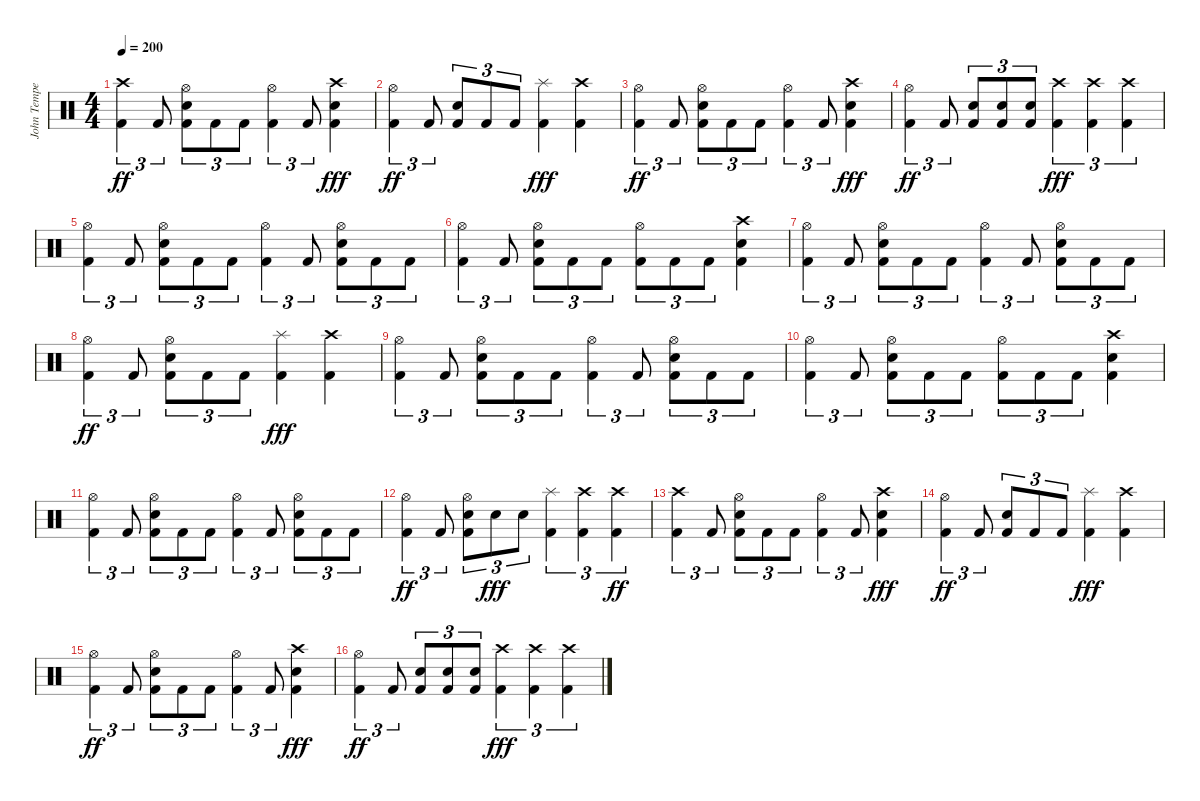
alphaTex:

\track ("John Tempesta" "John Tempe") {instrument percussion}
\staff {score}
\articulation defaults
\ts (4 4)
\tempo 200
\clef neutral
\ks c
("Crash high (hit)" "Kick (hit) 2").4{tu (3 2) dy ff} "Kick (hit) 2".8{tu (3 2)} ("Electric Snare (hit)" "Hi-Hat (open)" "Kick (hit) 2").8{tu (3 2)} "Kick (hit) 2".8{tu (3 2)} "Kick (hit) 2".8{tu (3 2)} ("Hi-Hat (open)" "Kick (hit) 2").4{tu (3 2)} "Kick (hit) 2".8{tu (3 2)} ("Electric Snare (hit)" "Crash high (hit)" "Kick (hit) 2").4{dy fff} |
("Hi-Hat (open)" "Kick (hit) 2").4{tu (3 2) dy ff} "Kick (hit) 2".8{tu (3 2)} ("Electric Snare (hit)" "Kick (hit) 2").8{tu (3 2)} "Kick (hit) 2".8{tu (3 2)} "Kick (hit) 2".8{tu (3 2)} ("Splash (hit)" "Kick (hit) 2").4{dy fff} ("Crash high (hit)" "Kick (hit) 2").4 |
("Hi-Hat (open)" "Kick (hit) 2").4{tu (3 2) dy ff} "Kick (hit) 2".8{tu (3 2)} ("Electric Snare (hit)" "Hi-Hat (open)" "Kick (hit) 2").8{tu (3 2)} "Kick (hit) 2".8{tu (3 2)} "Kick (hit) 2".8{tu (3 2)} ("Hi-Hat (open)" "Kick (hit) 2").4{tu (3 2)} "Kick (hit) 2".8{tu (3 2)} ("Electric Snare (hit)" "Crash high (hit)" "Kick (hit) 2").4{dy fff} |
("Hi-Hat (open)" "Kick (hit) 2").4{tu (3 2) dy ff} "Kick (hit) 2".8{tu (3 2)} ("Electric Snare (hit)" "Kick (hit) 2").8{tu (3 2)} ("Electric Snare (hit)" "Kick (hit) 2").8{tu (3 2)} ("Electric Snare (hit)" "Kick (hit) 2").8{tu (3 2)} ("Crash high (hit)" "Kick (hit) 2").4{tu (3 2) dy fff} ("Crash high (hit)" "Kick (hit) 2").4{tu (3 2)} ("Crash high (hit)" "Kick (hit) 2").4{tu (3 2)} |
("Hi-Hat (open)" "Kick (hit) 2").4{tu (3 2)} "Kick (hit) 2".8{tu (3 2)} ("Electric Snare (hit)" "Hi-Hat (open)" "Kick (hit) 2").8{tu (3 2)} "Kick (hit) 2".8{tu (3 2)} "Kick (hit) 2".8{tu (3 2)} ("Hi-Hat (open)" "Kick (hit) 2").4{tu (3 2)} "Kick (hit) 2".8{tu (3 2)} ("Electric Snare (hit)" "Hi-Hat (open)" "Kick (hit) 2").8{tu (3 2)} "Kick (hit) 2".8{tu (3 2)} "Kick (hit) 2".8{tu (3 2)} |
("Hi-Hat (open)" "Kick (hit) 2").4{tu (3 2)} "Kick (hit) 2".8{tu (3 2)} ("Electric Snare (hit)" "Hi-Hat (open)" "Kick (hit) 2").8{tu (3 2)} "Kick (hit) 2".8{tu (3 2)} "Kick (hit) 2".8{tu (3 2)} ("Hi-Hat (open)" "Kick (hit) 2").8{tu (3 2)} "Kick (hit) 2".8{tu (3 2)} "Kick (hit) 2".8{tu (3 2)} ("Electric Snare (hit)" "Crash high (hit)" "Kick (hit) 2").4 |
("Hi-Hat (open)" "Kick (hit) 2").4{tu (3 2)} "Kick (hit) 2".8{tu (3 2)} ("Electric Snare (hit)" "Hi-Hat (open)" "Kick (hit) 2").8{tu (3 2)} "Kick (hit) 2".8{tu (3 2)} "Kick (hit) 2".8{tu (3 2)} ("Hi-Hat (open)" "Kick (hit) 2").4{tu (3 2)} "Kick (hit) 2".8{tu (3 2)} ("Electric Snare (hit)" "Hi-Hat (open)" "Kick (hit) 2").8{tu (3 2)} "Kick (hit) 2".8{tu (3 2)} "Kick (hit) 2".8{tu (3 2)} |
("Hi-Hat (open)" "Kick (hit) 2").4{tu (3 2) dy ff} "Kick (hit) 2".8{tu (3 2)} ("Electric Snare (hit)" "Hi-Hat (open)" "Kick (hit) 2").8{tu (3 2)} "Kick (hit) 2".8{tu (3 2)} "Kick (hit) 2".8{tu (3 2)} ("Splash (hit)" "Kick (hit) 2").4{dy fff} ("Crash high (hit)" "Kick (hit) 2").4 |
("Hi-Hat (open)" "Kick (hit) 2").4{tu (3 2)} "Kick (hit) 2".8{tu (3 2)} ("Electric Snare (hit)" "Hi-Hat (open)" "Kick (hit) 2").8{tu (3 2)} "Kick (hit) 2".8{tu (3 2)} "Kick (hit) 2".8{tu (3 2)} ("Hi-Hat (open)" "Kick (hit) 2").4{tu (3 2)} "Kick (hit) 2".8{tu (3 2)} ("Electric Snare (hit)" "Hi-Hat (open)" "Kick (hit) 2").8{tu (3 2)} "Kick (hit) 2".8{tu (3 2)} "Kick (hit) 2".8{tu (3 2)} |
("Hi-Hat (open)" "Kick (hit) 2").4{tu (3 2)} "Kick (hit) 2".8{tu (3 2)} ("Electric Snare (hit)" "Hi-Hat (open)" "Kick (hit) 2").8{tu (3 2)} "Kick (hit) 2".8{tu (3 2)} "Kick (hit) 2".8{tu (3 2)} ("Hi-Hat (open)" "Kick (hit) 2").8{tu (3 2)} "Kick (hit) 2".8{tu (3 2)} "Kick (hit) 2".8{tu (3 2)} ("Electric Snare (hit)" "Crash high (hit)" "Kick (hit) 2").4 |
("Hi-Hat (open)" "Kick (hit) 2").4{tu (3 2)} "Kick (hit) 2".8{tu (3 2)} ("Electric Snare (hit)" "Hi-Hat (open)" "Kick (hit) 2").8{tu (3 2)} "Kick (hit) 2".8{tu (3 2)} "Kick (hit) 2".8{tu (3 2)} ("Hi-Hat (open)" "Kick (hit) 2").4{tu (3 2)} "Kick (hit) 2".8{tu (3 2)} ("Electric Snare (hit)" "Hi-Hat (open)" "Kick (hit) 2").8{tu (3 2)} "Kick (hit) 2".8{tu (3 2)} "Kick (hit) 2".8{tu (3 2)} |
("Hi-Hat (open)" "Kick (hit) 2").4{tu (3 2) dy ff} "Kick (hit) 2".8{tu (3 2)} ("Electric Snare (hit)" "Hi-Hat (open)" "Kick (hit) 2").8{tu (3 2)} "Electric Snare (hit)".8{tu (3 2) dy fff} "Electric Snare (hit)".8{tu (3 2)} ("Splash (hit)" "Kick (hit) 2").4{tu (3 2)} ("Crash high (hit)" "Kick (hit) 2").4{tu (3 2)} ("Crash high (hit)" "Kick (hit) 2").4{tu (3 2) dy ff} |
("Crash high (hit)" "Kick (hit) 2").4{tu (3 2)} "Kick (hit) 2".8{tu (3 2)} ("Electric Snare (hit)" "Hi-Hat (open)" "Kick (hit) 2").8{tu (3 2)} "Kick (hit) 2".8{tu (3 2)} "Kick (hit) 2".8{tu (3 2)} ("Hi-Hat (open)" "Kick (hit) 2").4{tu (3 2)} "Kick (hit) 2".8{tu (3 2)} ("Electric Snare (hit)" "Crash high (hit)" "Kick (hit) 2").4{dy fff} |
("Hi-Hat (open)" "Kick (hit) 2").4{tu (3 2) dy ff} "Kick (hit) 2".8{tu (3 2)} ("Electric Snare (hit)" "Kick (hit) 2").8{tu (3 2)} "Kick (hit) 2".8{tu (3 2)} "Kick (hit) 2".8{tu (3 2)} ("Splash (hit)" "Kick (hit) 2").4{dy fff} ("Crash high (hit)" "Kick (hit) 2").4 |
("Hi-Hat (open)" "Kick (hit) 2").4{tu (3 2) dy ff} "Kick (hit) 2".8{tu (3 2)} ("Electric Snare (hit)" "Hi-Hat (open)" "Kick (hit) 2").8{tu (3 2)} "Kick (hit) 2".8{tu (3 2)} "Kick (hit) 2".8{tu (3 2)} ("Hi-Hat (open)" "Kick (hit) 2").4{tu (3 2)} "Kick (hit) 2".8{tu (3 2)} ("Electric Snare (hit)" "Crash high (hit)" "Kick (hit) 2").4{dy fff} |
("Hi-Hat (open)" "Kick (hit) 2").4{tu (3 2) dy ff} "Kick (hit) 2".8{tu (3 2)} ("Electric Snare (hit)" "Kick (hit) 2").8{tu (3 2)} ("Electric Snare (hit)" "Kick (hit) 2").8{tu (3 2)} ("Electric Snare (hit)" "Kick (hit) 2").8{tu (3 2)} ("Crash high (hit)" "Kick (hit) 2").4{tu (3 2) dy fff} ("Crash high (hit)" "Kick (hit) 2").4{tu (3 2)} ("Crash high (hit)" "Kick (hit) 2").4{tu (3 2)}
